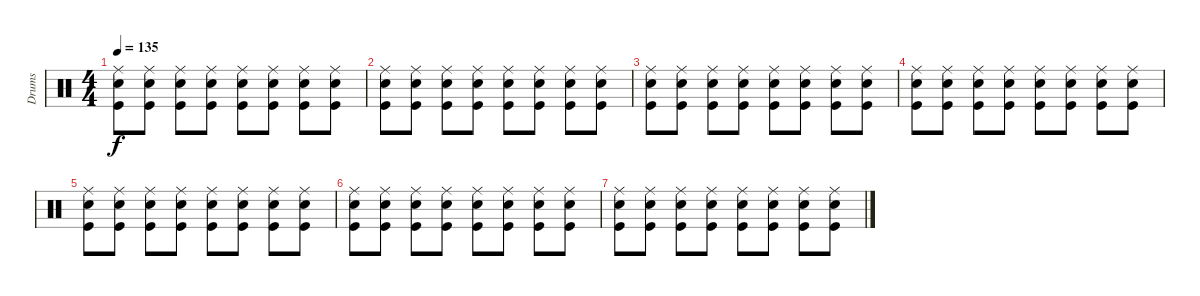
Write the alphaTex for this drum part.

\track ("Drums" "Drums") {instrument percussion}
\staff {score}
\articulation defaults
\ts (4 4)
\tempo 135
\clef neutral
\ks c
("Ride (middle)" "Electric Snare (hit)" "Kick (hit)").8{dy f} ("Ride (middle)" "Electric Snare (hit)" "Kick (hit)").8 ("Ride (middle)" "Electric Snare (hit)" "Kick (hit)").8 ("Ride (middle)" "Electric Snare (hit)" "Kick (hit)").8 ("Ride (middle)" "Electric Snare (hit)" "Kick (hit)").8 ("Ride (middle)" "Electric Snare (hit)" "Kick (hit)").8 ("Ride (middle)" "Electric Snare (hit)" "Kick (hit)").8 ("Ride (middle)" "Electric Snare (hit)" "Kick (hit)").8 |
("Ride (middle)" "Electric Snare (hit)" "Kick (hit)").8 ("Ride (middle)" "Electric Snare (hit)" "Kick (hit)").8 ("Ride (middle)" "Electric Snare (hit)" "Kick (hit)").8 ("Ride (middle)" "Electric Snare (hit)" "Kick (hit)").8 ("Ride (middle)" "Electric Snare (hit)" "Kick (hit)").8 ("Ride (middle)" "Electric Snare (hit)" "Kick (hit)").8 ("Ride (middle)" "Electric Snare (hit)" "Kick (hit)").8 ("Ride (middle)" "Electric Snare (hit)" "Kick (hit)").8 |
("Ride (middle)" "Electric Snare (hit)" "Kick (hit)").8 ("Ride (middle)" "Electric Snare (hit)" "Kick (hit)").8 ("Ride (middle)" "Electric Snare (hit)" "Kick (hit)").8 ("Ride (middle)" "Electric Snare (hit)" "Kick (hit)").8 ("Ride (middle)" "Electric Snare (hit)" "Kick (hit)").8 ("Ride (middle)" "Electric Snare (hit)" "Kick (hit)").8 ("Ride (middle)" "Electric Snare (hit)" "Kick (hit)").8 ("Ride (middle)" "Electric Snare (hit)" "Kick (hit)").8 |
("Ride (middle)" "Electric Snare (hit)" "Kick (hit)").8 ("Ride (middle)" "Electric Snare (hit)" "Kick (hit)").8 ("Ride (middle)" "Electric Snare (hit)" "Kick (hit)").8 ("Ride (middle)" "Electric Snare (hit)" "Kick (hit)").8 ("Ride (middle)" "Electric Snare (hit)" "Kick (hit)").8 ("Ride (middle)" "Electric Snare (hit)" "Kick (hit)").8 ("Ride (middle)" "Electric Snare (hit)" "Kick (hit)").8 ("Ride (middle)" "Electric Snare (hit)" "Kick (hit)").8 |
("Ride (middle)" "Electric Snare (hit)" "Kick (hit)").8 ("Ride (middle)" "Electric Snare (hit)" "Kick (hit)").8 ("Ride (middle)" "Electric Snare (hit)" "Kick (hit)").8 ("Ride (middle)" "Electric Snare (hit)" "Kick (hit)").8 ("Ride (middle)" "Electric Snare (hit)" "Kick (hit)").8 ("Ride (middle)" "Electric Snare (hit)" "Kick (hit)").8 ("Ride (middle)" "Electric Snare (hit)" "Kick (hit)").8 ("Ride (middle)" "Electric Snare (hit)" "Kick (hit)").8 |
("Ride (middle)" "Electric Snare (hit)" "Kick (hit)").8 ("Ride (middle)" "Electric Snare (hit)" "Kick (hit)").8 ("Ride (middle)" "Electric Snare (hit)" "Kick (hit)").8 ("Ride (middle)" "Electric Snare (hit)" "Kick (hit)").8 ("Ride (middle)" "Electric Snare (hit)" "Kick (hit)").8 ("Ride (middle)" "Electric Snare (hit)" "Kick (hit)").8 ("Ride (middle)" "Electric Snare (hit)" "Kick (hit)").8 ("Ride (middle)" "Electric Snare (hit)" "Kick (hit)").8 |
("Ride (middle)" "Electric Snare (hit)" "Kick (hit)").8 ("Ride (middle)" "Electric Snare (hit)" "Kick (hit)").8 ("Ride (middle)" "Electric Snare (hit)" "Kick (hit)").8 ("Ride (middle)" "Electric Snare (hit)" "Kick (hit)").8 ("Ride (middle)" "Electric Snare (hit)" "Kick (hit)").8 ("Ride (middle)" "Electric Snare (hit)" "Kick (hit)").8 ("Ride (middle)" "Electric Snare (hit)" "Kick (hit)").8 ("Ride (middle)" "Electric Snare (hit)" "Kick (hit)").8
